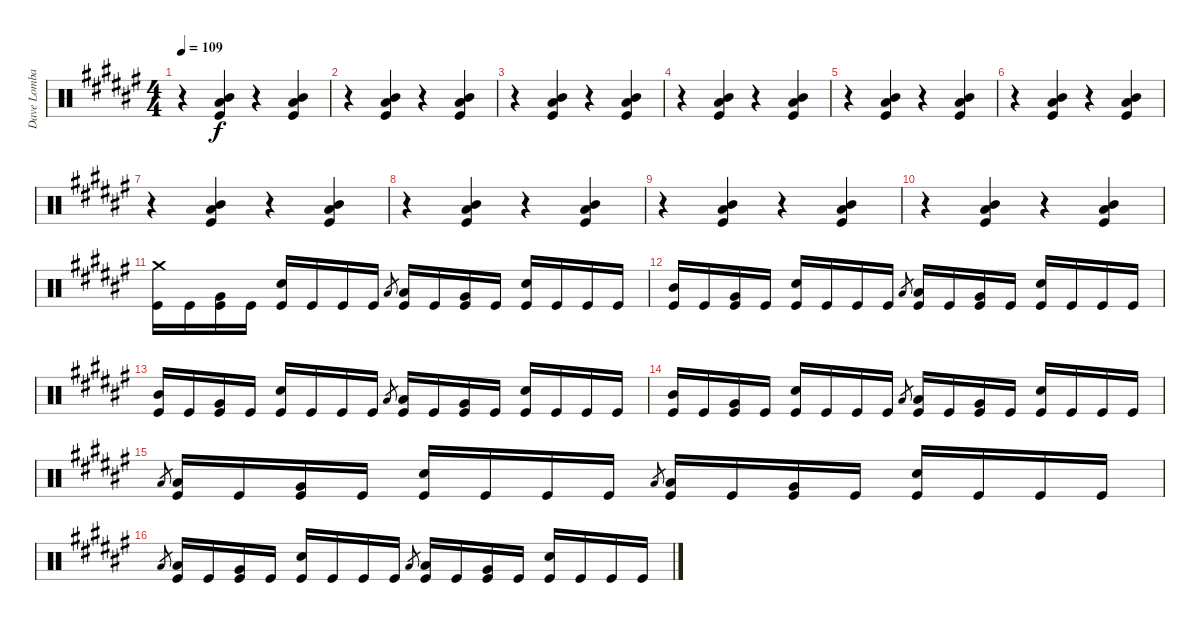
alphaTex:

\track ("Dave Lombardo" "Dave Lomba") {instrument percussion}
\staff {score}
\articulation defaults
\ts (4 4)
\tempo 109
\clef neutral
\ks f#
r.4{dy f} ("Mid Tom (hit)" "Low Tom (hit)" "Kick (hit)").4 r.4 ("Mid Tom (hit)" "Low Tom (hit)" "Kick (hit)").4 |
r.4 ("Mid Tom (hit)" "Low Tom (hit)" "Kick (hit)").4 r.4 ("Mid Tom (hit)" "Low Tom (hit)" "Kick (hit)").4 |
r.4 ("Mid Tom (hit)" "Low Tom (hit)" "Kick (hit)").4 r.4 ("Mid Tom (hit)" "Low Tom (hit)" "Kick (hit)").4 |
r.4 ("Mid Tom (hit)" "Low Tom (hit)" "Kick (hit)").4 r.4 ("Mid Tom (hit)" "Low Tom (hit)" "Kick (hit)").4 |
r.4 ("Mid Tom (hit)" "Low Tom (hit)" "Kick (hit)").4 r.4 ("Mid Tom (hit)" "Low Tom (hit)" "Kick (hit)").4 |
r.4 ("Mid Tom (hit)" "Low Tom (hit)" "Kick (hit)").4 r.4 ("Mid Tom (hit)" "Low Tom (hit)" "Kick (hit)").4 |
r.4 ("Mid Tom (hit)" "Low Tom (hit)" "Kick (hit)").4 r.4 ("Mid Tom (hit)" "Low Tom (hit)" "Kick (hit)").4 |
r.4 ("Mid Tom (hit)" "Low Tom (hit)" "Kick (hit)").4 r.4 ("Mid Tom (hit)" "Low Tom (hit)" "Kick (hit)").4 |
r.4 ("Mid Tom (hit)" "Low Tom (hit)" "Kick (hit)").4 r.4 ("Mid Tom (hit)" "Low Tom (hit)" "Kick (hit)").4 |
r.4 ("Mid Tom (hit)" "Low Tom (hit)" "Kick (hit)").4 r.4 ("Mid Tom (hit)" "Low Tom (hit)" "Kick (hit)").4 |
("Crash medium (hit)" "Kick (hit)").16 "Kick (hit)".16 ("Very Low Tom (hit)" "Kick (hit)").16 "Kick (hit)".16 ("Snare (hit) 2" "Kick (hit)").16 "Kick (hit)".16 "Kick (hit)".16 "Kick (hit)".16 "Low Tom (hit)".8{gr} ("Low Tom (hit)" "Kick (hit)").16 "Kick (hit)".16 ("Very Low Tom (hit)" "Kick (hit)").16 "Kick (hit)".16 ("Snare (hit) 2" "Kick (hit)").16 "Kick (hit)".16 "Kick (hit)".16 "Kick (hit)".16 |
("Mid Tom (hit)" "Kick (hit)").16 "Kick (hit)".16 ("Very Low Tom (hit)" "Kick (hit)").16 "Kick (hit)".16 ("Snare (hit) 2" "Kick (hit)").16 "Kick (hit)".16 "Kick (hit)".16 "Kick (hit)".16 "Low Tom (hit)".8{gr} ("Low Tom (hit)" "Kick (hit)").16 "Kick (hit)".16 ("Very Low Tom (hit)" "Kick (hit)").16 "Kick (hit)".16 ("Snare (hit) 2" "Kick (hit)").16 "Kick (hit)".16 "Kick (hit)".16 "Kick (hit)".16 |
("Mid Tom (hit)" "Kick (hit)").16 "Kick (hit)".16 ("Very Low Tom (hit)" "Kick (hit)").16 "Kick (hit)".16 ("Snare (hit) 2" "Kick (hit)").16 "Kick (hit)".16 "Kick (hit)".16 "Kick (hit)".16 "Low Tom (hit)".8{gr} ("Low Tom (hit)" "Kick (hit)").16 "Kick (hit)".16 ("Very Low Tom (hit)" "Kick (hit)").16 "Kick (hit)".16 ("Snare (hit) 2" "Kick (hit)").16 "Kick (hit)".16 "Kick (hit)".16 "Kick (hit)".16 |
("Mid Tom (hit)" "Kick (hit)").16 "Kick (hit)".16 ("Very Low Tom (hit)" "Kick (hit)").16 "Kick (hit)".16 ("Snare (hit) 2" "Kick (hit)").16 "Kick (hit)".16 "Kick (hit)".16 "Kick (hit)".16 "Low Tom (hit)".8{gr} ("Low Tom (hit)" "Kick (hit)").16 "Kick (hit)".16 ("Very Low Tom (hit)" "Kick (hit)").16 "Kick (hit)".16 ("Snare (hit) 2" "Kick (hit)").16 "Kick (hit)".16 "Kick (hit)".16 "Kick (hit)".16 |
"Low Tom (hit)".8{gr} ("Low Tom (hit)" "Kick (hit)").16 "Kick (hit)".16 ("Very Low Tom (hit)" "Kick (hit)").16 "Kick (hit)".16 ("Snare (hit) 2" "Kick (hit)").16 "Kick (hit)".16 "Kick (hit)".16 "Kick (hit)".16 "Low Tom (hit)".8{gr} ("Low Tom (hit)" "Kick (hit)").16 "Kick (hit)".16 ("Very Low Tom (hit)" "Kick (hit)").16 "Kick (hit)".16 ("Snare (hit) 2" "Kick (hit)").16 "Kick (hit)".16 "Kick (hit)".16 "Kick (hit)".16 |
"Low Tom (hit)".8{gr} ("Low Tom (hit)" "Kick (hit)").16 "Kick (hit)".16 ("Very Low Tom (hit)" "Kick (hit)").16 "Kick (hit)".16 ("Snare (hit) 2" "Kick (hit)").16 "Kick (hit)".16 "Kick (hit)".16 "Kick (hit)".16 "Low Tom (hit)".8{gr} ("Low Tom (hit)" "Kick (hit)").16 "Kick (hit)".16 ("Very Low Tom (hit)" "Kick (hit)").16 "Kick (hit)".16 ("Snare (hit) 2" "Kick (hit)").16 "Kick (hit)".16 "Kick (hit)".16 "Kick (hit)".16
